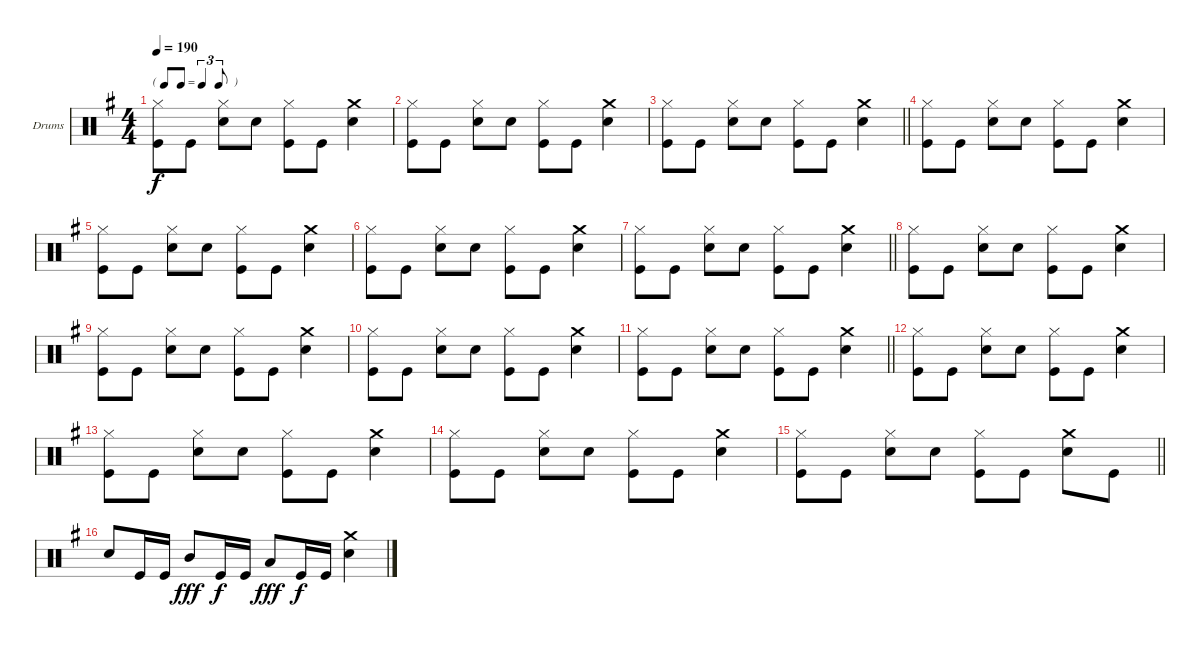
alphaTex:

\bracketExtendMode groupsimilarinstruments
\firstSystemTrackNameOrientation horizontal
\otherSystemsTrackNameOrientation horizontal
\track ("Drums" "Drums") {instrument percussion}
\staff {score}
\articulation defaults
\ts (4 4)
\tf triplet8th
\tempo 190
\clef neutral
\ks g
("Hi-Hat (closed)" "Kick (hit)").8{dy f} "Kick (hit)".8 ("Snare (hit) 2" "Hi-Hat (closed)").8 "Snare (hit) 2".8 ("Kick (hit)" "Hi-Hat (closed)").8 "Kick (hit)".8 ("Crash medium (hit)" "Snare (hit) 2").4 |
("Hi-Hat (closed)" "Kick (hit)").8 "Kick (hit)".8 ("Snare (hit) 2" "Hi-Hat (closed)").8 "Snare (hit) 2".8 ("Kick (hit)" "Hi-Hat (closed)").8 "Kick (hit)".8 ("Crash medium (hit)" "Snare (hit) 2").4 |
\barLineRight lightlight
("Hi-Hat (closed)" "Kick (hit)").8 "Kick (hit)".8 ("Snare (hit) 2" "Hi-Hat (closed)").8 "Snare (hit) 2".8 ("Kick (hit)" "Hi-Hat (closed)").8 "Kick (hit)".8 ("Crash medium (hit)" "Snare (hit) 2").4 |
("Hi-Hat (closed)" "Kick (hit)").8 "Kick (hit)".8 ("Snare (hit) 2" "Hi-Hat (closed)").8 "Snare (hit) 2".8 ("Kick (hit)" "Hi-Hat (closed)").8 "Kick (hit)".8 ("Crash medium (hit)" "Snare (hit) 2").4 |
("Hi-Hat (closed)" "Kick (hit)").8 "Kick (hit)".8 ("Snare (hit) 2" "Hi-Hat (closed)").8 "Snare (hit) 2".8 ("Kick (hit)" "Hi-Hat (closed)").8 "Kick (hit)".8 ("Crash medium (hit)" "Snare (hit) 2").4 |
("Hi-Hat (closed)" "Kick (hit)").8 "Kick (hit)".8 ("Snare (hit) 2" "Hi-Hat (closed)").8 "Snare (hit) 2".8 ("Kick (hit)" "Hi-Hat (closed)").8 "Kick (hit)".8 ("Crash medium (hit)" "Snare (hit) 2").4 |
\barLineRight lightlight
("Hi-Hat (closed)" "Kick (hit)").8 "Kick (hit)".8 ("Snare (hit) 2" "Hi-Hat (closed)").8 "Snare (hit) 2".8 ("Kick (hit)" "Hi-Hat (closed)").8 "Kick (hit)".8 ("Crash medium (hit)" "Snare (hit) 2").4 |
("Hi-Hat (closed)" "Kick (hit)").8 "Kick (hit)".8 ("Snare (hit) 2" "Hi-Hat (closed)").8 "Snare (hit) 2".8 ("Kick (hit)" "Hi-Hat (closed)").8 "Kick (hit)".8 ("Crash medium (hit)" "Snare (hit) 2").4 |
("Hi-Hat (closed)" "Kick (hit)").8 "Kick (hit)".8 ("Snare (hit) 2" "Hi-Hat (closed)").8 "Snare (hit) 2".8 ("Kick (hit)" "Hi-Hat (closed)").8 "Kick (hit)".8 ("Crash medium (hit)" "Snare (hit) 2").4 |
("Hi-Hat (closed)" "Kick (hit)").8 "Kick (hit)".8 ("Snare (hit) 2" "Hi-Hat (closed)").8 "Snare (hit) 2".8 ("Kick (hit)" "Hi-Hat (closed)").8 "Kick (hit)".8 ("Crash medium (hit)" "Snare (hit) 2").4 |
\barLineRight lightlight
("Hi-Hat (closed)" "Kick (hit)").8 "Kick (hit)".8 ("Snare (hit) 2" "Hi-Hat (closed)").8 "Snare (hit) 2".8 ("Kick (hit)" "Hi-Hat (closed)").8 "Kick (hit)".8 ("Crash medium (hit)" "Snare (hit) 2").4 |
("Hi-Hat (closed)" "Kick (hit)").8 "Kick (hit)".8 ("Snare (hit) 2" "Hi-Hat (closed)").8 "Snare (hit) 2".8 ("Kick (hit)" "Hi-Hat (closed)").8 "Kick (hit)".8 ("Crash medium (hit)" "Snare (hit) 2").4 |
("Hi-Hat (closed)" "Kick (hit)").8 "Kick (hit)".8 ("Snare (hit) 2" "Hi-Hat (closed)").8 "Snare (hit) 2".8 ("Kick (hit)" "Hi-Hat (closed)").8 "Kick (hit)".8 ("Crash medium (hit)" "Snare (hit) 2").4 |
("Hi-Hat (closed)" "Kick (hit)").8 "Kick (hit)".8 ("Snare (hit) 2" "Hi-Hat (closed)").8 "Snare (hit) 2".8 ("Kick (hit)" "Hi-Hat (closed)").8 "Kick (hit)".8 ("Crash medium (hit)" "Snare (hit) 2").4 |
\barLineRight lightlight
("Hi-Hat (closed)" "Kick (hit)").8 "Kick (hit)".8 ("Snare (hit) 2" "Hi-Hat (closed)").8 "Snare (hit) 2".8 ("Kick (hit)" "Hi-Hat (closed)").8 "Kick (hit)".8 ("Crash medium (hit)" "Snare (hit) 2").8 "Kick (hit)".8 |
"Snare (hit) 2".8 "Kick (hit)".16 "Kick (hit)".16 "Mid Tom (hit)".8{dy fff} "Kick (hit)".16{dy f} "Kick (hit)".16 "Low Tom (hit)".8{dy fff} "Kick (hit)".16{dy f} "Kick (hit)".16 ("Snare (hit) 2" "Crash medium (hit)").4
